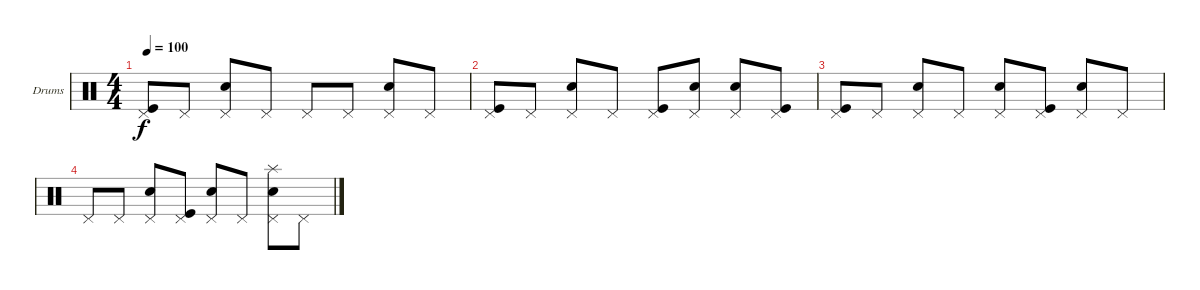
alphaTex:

\defaultSystemsLayout 4
\bracketExtendMode groupsimilarinstruments
\firstSystemTrackNameOrientation horizontal
\otherSystemsTrackNameOrientation horizontal
\track ("Drumkit" "Drums") {instrument percussion}
\staff {score}
\articulation defaults
\ts (4 4)
\tempo 100
\clef neutral
\ks c
("Pedal Hi-Hat (hit)" "Kick (hit)").8{dy f} "Pedal Hi-Hat (hit)".8 ("Pedal Hi-Hat (hit)" "Snare (hit) 2").8 "Pedal Hi-Hat (hit)".8 "Pedal Hi-Hat (hit)".8 "Pedal Hi-Hat (hit)".8 ("Pedal Hi-Hat (hit)" "Snare (hit) 2").8 "Pedal Hi-Hat (hit)".8 |
("Pedal Hi-Hat (hit)" "Kick (hit)").8 "Pedal Hi-Hat (hit)".8 ("Pedal Hi-Hat (hit)" "Snare (hit) 2").8 "Pedal Hi-Hat (hit)".8 ("Pedal Hi-Hat (hit)" "Kick (hit)").8 ("Pedal Hi-Hat (hit)" "Snare (hit) 2").8 ("Pedal Hi-Hat (hit)" "Snare (hit) 2").8 ("Pedal Hi-Hat (hit)" "Kick (hit)").8 |
("Pedal Hi-Hat (hit)" "Kick (hit)").8 "Pedal Hi-Hat (hit)".8 ("Pedal Hi-Hat (hit)" "Snare (hit) 2").8 "Pedal Hi-Hat (hit)".8 ("Pedal Hi-Hat (hit)" "Snare (hit) 2").8 ("Pedal Hi-Hat (hit)" "Kick (hit)").8 ("Pedal Hi-Hat (hit)" "Snare (hit) 2").8 "Pedal Hi-Hat (hit)".8 |
"Pedal Hi-Hat (hit)".8 "Pedal Hi-Hat (hit)".8 ("Pedal Hi-Hat (hit)" "Snare (hit) 2").8 ("Pedal Hi-Hat (hit)" "Kick (hit)").8 ("Pedal Hi-Hat (hit)" "Snare (hit) 2").8 "Pedal Hi-Hat (hit)".8 ("Pedal Hi-Hat (hit)" "Snare (hit) 2" "Splash (hit)").8 "Pedal Hi-Hat (hit)".8
